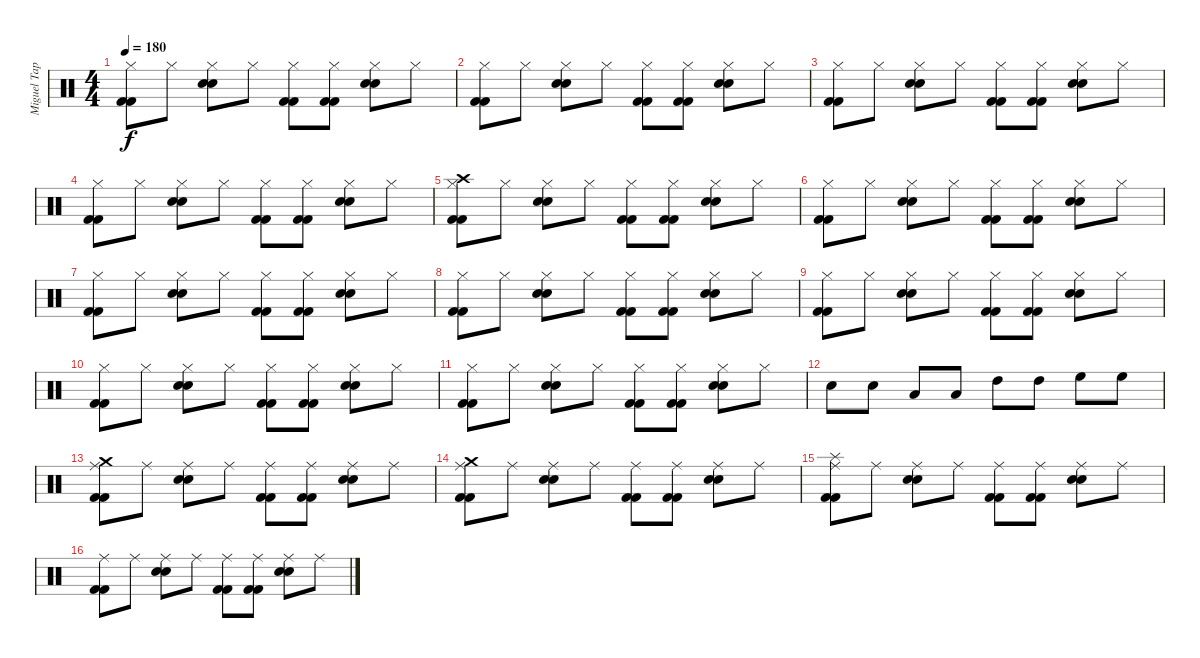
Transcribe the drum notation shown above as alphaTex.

\track ("Miguel Tapia" "Miguel Tap") {instrument percussion}
\staff {score}
\articulation defaults
\ts (4 4)
\tempo 180
\clef neutral
\ks c
("Hi-Hat (closed)" "Kick (hit) 2" "Kick (hit) 2").8{dy f} "Hi-Hat (closed)".8 ("Hi-Hat (closed)" "Electric Snare (hit)" "Electric Snare (hit)").8 "Hi-Hat (closed)".8 ("Hi-Hat (closed)" "Kick (hit) 2" "Kick (hit) 2").8 ("Hi-Hat (closed)" "Kick (hit) 2" "Kick (hit) 2").8 ("Hi-Hat (closed)" "Electric Snare (hit)" "Electric Snare (hit)").8 "Hi-Hat (closed)".8 |
("Hi-Hat (closed)" "Kick (hit) 2" "Kick (hit) 2").8 "Hi-Hat (closed)".8 ("Hi-Hat (closed)" "Electric Snare (hit)" "Electric Snare (hit)").8 "Hi-Hat (closed)".8 ("Hi-Hat (closed)" "Kick (hit) 2" "Kick (hit) 2").8 ("Hi-Hat (closed)" "Kick (hit) 2" "Kick (hit) 2").8 ("Hi-Hat (closed)" "Electric Snare (hit)" "Electric Snare (hit)").8 "Hi-Hat (closed)".8 |
("Hi-Hat (closed)" "Kick (hit) 2" "Kick (hit) 2").8 "Hi-Hat (closed)".8 ("Hi-Hat (closed)" "Electric Snare (hit)" "Electric Snare (hit)").8 "Hi-Hat (closed)".8 ("Hi-Hat (closed)" "Kick (hit) 2" "Kick (hit) 2").8 ("Hi-Hat (closed)" "Kick (hit) 2" "Kick (hit) 2").8 ("Hi-Hat (closed)" "Electric Snare (hit)" "Electric Snare (hit)").8 "Hi-Hat (closed)".8 |
("Hi-Hat (closed)" "Kick (hit) 2" "Kick (hit) 2").8 "Hi-Hat (closed)".8 ("Hi-Hat (closed)" "Electric Snare (hit)" "Electric Snare (hit)").8 "Hi-Hat (closed)".8 ("Hi-Hat (closed)" "Kick (hit) 2" "Kick (hit) 2").8 ("Hi-Hat (closed)" "Kick (hit) 2" "Kick (hit) 2").8 ("Hi-Hat (closed)" "Electric Snare (hit)" "Electric Snare (hit)").8 "Hi-Hat (closed)".8 |
("Hi-Hat (closed)" "Kick (hit) 2" "Kick (hit) 2" "Crash high (hit)").8 "Hi-Hat (closed)".8 ("Hi-Hat (closed)" "Electric Snare (hit)" "Electric Snare (hit)").8 "Hi-Hat (closed)".8 ("Hi-Hat (closed)" "Kick (hit) 2" "Kick (hit) 2").8 ("Hi-Hat (closed)" "Kick (hit) 2" "Kick (hit) 2").8 ("Hi-Hat (closed)" "Electric Snare (hit)" "Electric Snare (hit)").8 "Hi-Hat (closed)".8 |
("Hi-Hat (closed)" "Kick (hit) 2" "Kick (hit) 2").8 "Hi-Hat (closed)".8 ("Hi-Hat (closed)" "Electric Snare (hit)" "Electric Snare (hit)").8 "Hi-Hat (closed)".8 ("Hi-Hat (closed)" "Kick (hit) 2" "Kick (hit) 2").8 ("Hi-Hat (closed)" "Kick (hit) 2" "Kick (hit) 2").8 ("Hi-Hat (closed)" "Electric Snare (hit)" "Electric Snare (hit)").8 "Hi-Hat (closed)".8 |
("Hi-Hat (closed)" "Kick (hit) 2" "Kick (hit) 2").8 "Hi-Hat (closed)".8 ("Hi-Hat (closed)" "Electric Snare (hit)" "Electric Snare (hit)").8 "Hi-Hat (closed)".8 ("Hi-Hat (closed)" "Kick (hit) 2" "Kick (hit) 2").8 ("Hi-Hat (closed)" "Kick (hit) 2" "Kick (hit) 2").8 ("Hi-Hat (closed)" "Electric Snare (hit)" "Electric Snare (hit)").8 "Hi-Hat (closed)".8 |
("Hi-Hat (closed)" "Kick (hit) 2" "Kick (hit) 2").8 "Hi-Hat (closed)".8 ("Hi-Hat (closed)" "Electric Snare (hit)" "Electric Snare (hit)").8 "Hi-Hat (closed)".8 ("Hi-Hat (closed)" "Kick (hit) 2" "Kick (hit) 2").8 ("Hi-Hat (closed)" "Kick (hit) 2" "Kick (hit) 2").8 ("Hi-Hat (closed)" "Electric Snare (hit)" "Electric Snare (hit)").8 "Hi-Hat (closed)".8 |
("Hi-Hat (closed)" "Kick (hit) 2" "Kick (hit) 2").8 "Hi-Hat (closed)".8 ("Hi-Hat (closed)" "Electric Snare (hit)" "Electric Snare (hit)").8 "Hi-Hat (closed)".8 ("Hi-Hat (closed)" "Kick (hit) 2" "Kick (hit) 2").8 ("Hi-Hat (closed)" "Kick (hit) 2" "Kick (hit) 2").8 ("Hi-Hat (closed)" "Electric Snare (hit)" "Electric Snare (hit)").8 "Hi-Hat (closed)".8 |
("Hi-Hat (closed)" "Kick (hit) 2" "Kick (hit) 2").8 "Hi-Hat (closed)".8 ("Hi-Hat (closed)" "Electric Snare (hit)" "Electric Snare (hit)").8 "Hi-Hat (closed)".8 ("Hi-Hat (closed)" "Kick (hit) 2" "Kick (hit) 2").8 ("Hi-Hat (closed)" "Kick (hit) 2" "Kick (hit) 2").8 ("Hi-Hat (closed)" "Electric Snare (hit)" "Electric Snare (hit)").8 "Hi-Hat (closed)".8 |
("Hi-Hat (closed)" "Kick (hit) 2" "Kick (hit) 2").8 "Hi-Hat (closed)".8 ("Hi-Hat (closed)" "Electric Snare (hit)" "Electric Snare (hit)").8 "Hi-Hat (closed)".8 ("Hi-Hat (closed)" "Kick (hit) 2" "Kick (hit) 2").8 ("Hi-Hat (closed)" "Kick (hit) 2" "Kick (hit) 2").8 ("Hi-Hat (closed)" "Electric Snare (hit)" "Electric Snare (hit)").8 "Hi-Hat (closed)".8 |
"Snare (hit) 2".8 "Snare (hit) 2".8 "Low Tom (hit)".8 "Low Tom (hit)".8 "High Tom (hit)".8 "High Tom (hit)".8 "High Floor Tom (hit)".8 "High Floor Tom (hit)".8 |
("Ride (middle)" "Kick (hit) 2" "Kick (hit) 2" "Crash medium (hit)").8 "Ride (middle)".8 ("Ride (middle)" "Electric Snare (hit)" "Electric Snare (hit)").8 "Ride (middle)".8 ("Ride (middle)" "Kick (hit) 2" "Kick (hit) 2").8 ("Ride (middle)" "Kick (hit) 2" "Kick (hit) 2").8 ("Ride (middle)" "Electric Snare (hit)" "Electric Snare (hit)").8 "Ride (middle)".8 |
("Ride (middle)" "Kick (hit) 2" "Kick (hit) 2" "Crash medium (hit)").8 "Ride (middle)".8 ("Ride (middle)" "Electric Snare (hit)" "Electric Snare (hit)").8 "Ride (middle)".8 ("Ride (middle)" "Kick (hit) 2" "Kick (hit) 2").8 ("Ride (middle)" "Kick (hit) 2" "Kick (hit) 2").8 ("Ride (middle)" "Electric Snare (hit)" "Electric Snare (hit)").8 "Ride (middle)".8 |
("Ride (middle)" "Kick (hit) 2" "Kick (hit) 2" "Splash (hit)").8 "Ride (middle)".8 ("Ride (middle)" "Electric Snare (hit)" "Electric Snare (hit)").8 "Ride (middle)".8 ("Ride (middle)" "Kick (hit) 2" "Kick (hit) 2").8 ("Ride (middle)" "Kick (hit) 2" "Kick (hit) 2").8 ("Ride (middle)" "Electric Snare (hit)" "Electric Snare (hit)").8 "Ride (middle)".8 |
("Ride (middle)" "Kick (hit) 2" "Kick (hit) 2").8 "Ride (middle)".8 ("Ride (middle)" "Electric Snare (hit)" "Electric Snare (hit)").8 "Ride (middle)".8 ("Ride (middle)" "Kick (hit) 2" "Kick (hit) 2").8 ("Ride (middle)" "Kick (hit) 2" "Kick (hit) 2").8 ("Ride (middle)" "Electric Snare (hit)" "Electric Snare (hit)").8 "Ride (middle)".8
